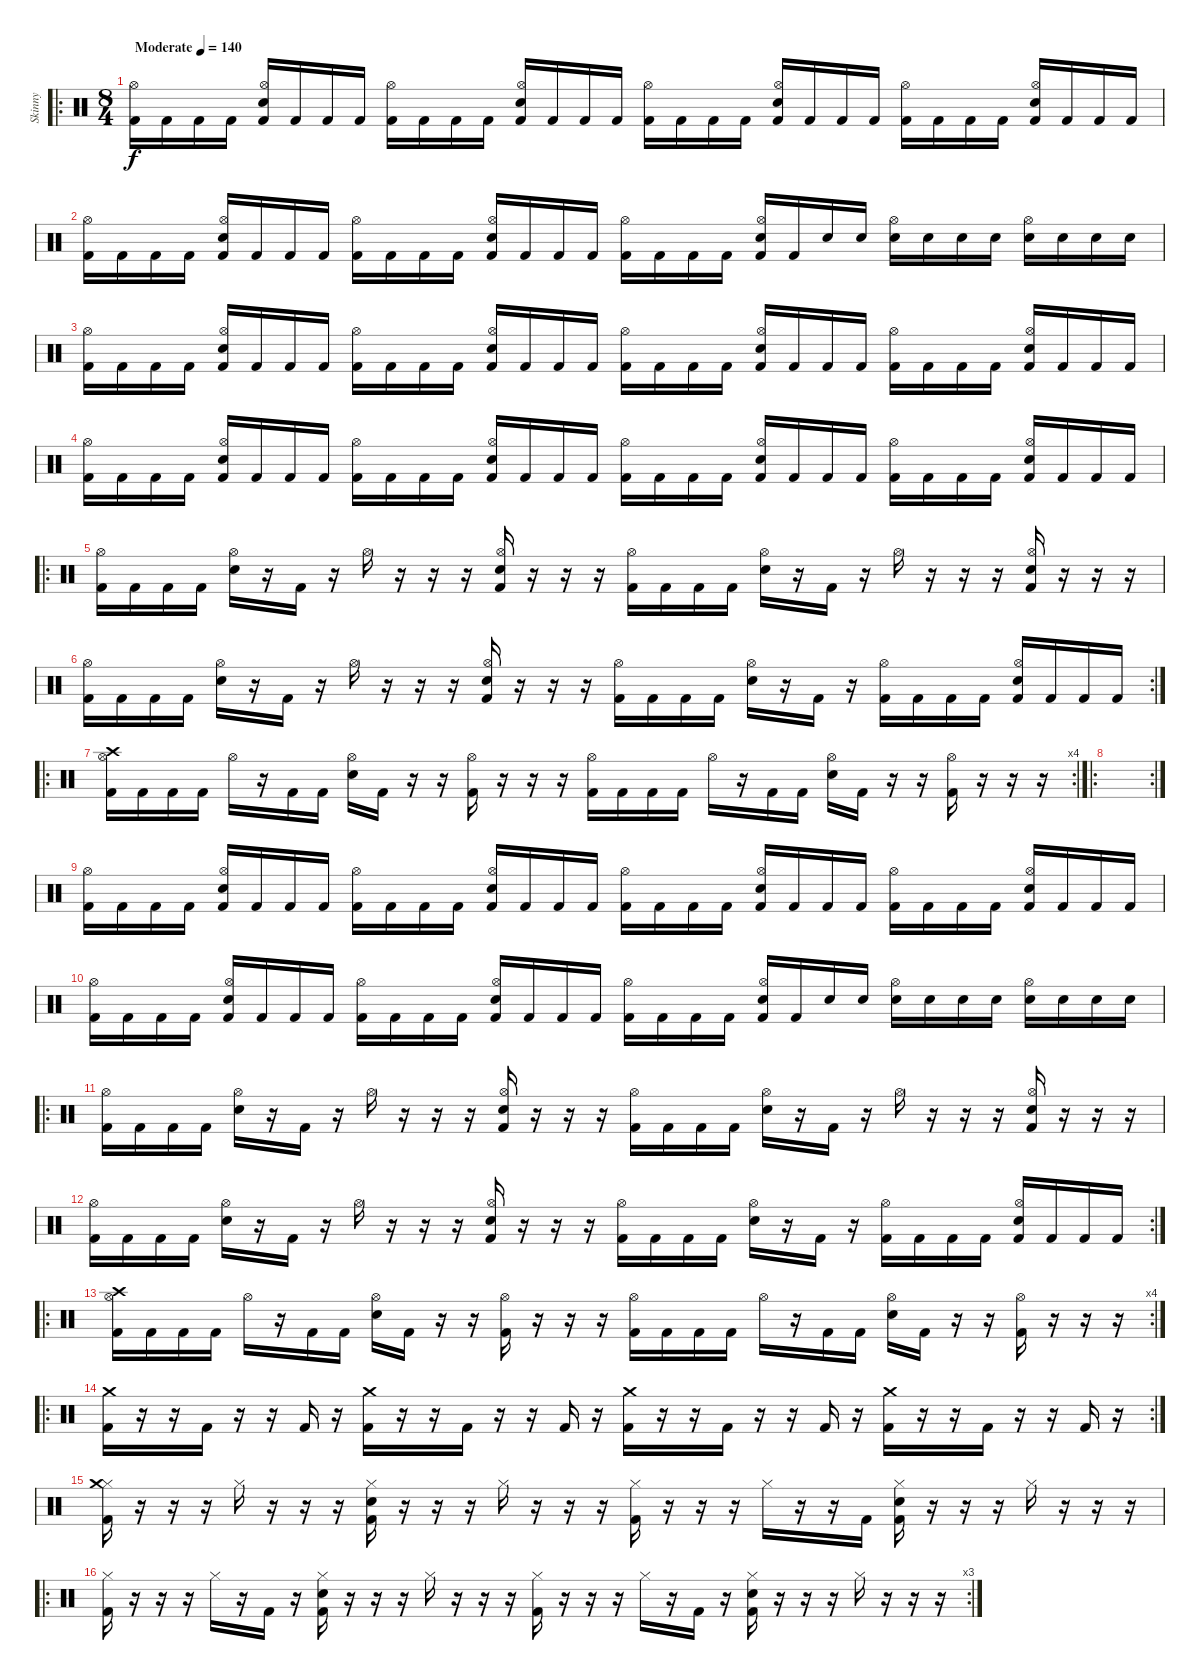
\track ("Skinny" "Skinny") {instrument percussion}
\staff {score}
\articulation defaults
\ro
\ts (8 4)
\tempo (140 "Moderate")
\clef neutral
\ks c
("Kick (hit) 2" "Hi-Hat (open)").16{dy f} "Kick (hit) 2".16 "Kick (hit) 2".16 "Kick (hit) 2".16 ("Kick (hit) 2" "Snare (hit) 2" "Hi-Hat (open)").16 "Kick (hit) 2".16 "Kick (hit) 2".16 "Kick (hit) 2".16 ("Kick (hit) 2" "Hi-Hat (open)").16 "Kick (hit) 2".16 "Kick (hit) 2".16 "Kick (hit) 2".16 ("Kick (hit) 2" "Snare (hit) 2" "Hi-Hat (open)").16 "Kick (hit) 2".16 "Kick (hit) 2".16 "Kick (hit) 2".16 ("Kick (hit) 2" "Hi-Hat (open)").16 "Kick (hit) 2".16 "Kick (hit) 2".16 "Kick (hit) 2".16 ("Kick (hit) 2" "Snare (hit) 2" "Hi-Hat (open)").16 "Kick (hit) 2".16 "Kick (hit) 2".16 "Kick (hit) 2".16 ("Kick (hit) 2" "Hi-Hat (open)").16 "Kick (hit) 2".16 "Kick (hit) 2".16 "Kick (hit) 2".16 ("Kick (hit) 2" "Snare (hit) 2" "Hi-Hat (open)").16 "Kick (hit) 2".16 "Kick (hit) 2".16 "Kick (hit) 2".16 |
("Kick (hit) 2" "Hi-Hat (open)").16 "Kick (hit) 2".16 "Kick (hit) 2".16 "Kick (hit) 2".16 ("Kick (hit) 2" "Snare (hit) 2" "Hi-Hat (open)").16 "Kick (hit) 2".16 "Kick (hit) 2".16 "Kick (hit) 2".16 ("Kick (hit) 2" "Hi-Hat (open)").16 "Kick (hit) 2".16 "Kick (hit) 2".16 "Kick (hit) 2".16 ("Kick (hit) 2" "Snare (hit) 2" "Hi-Hat (open)").16 "Kick (hit) 2".16 "Kick (hit) 2".16 "Kick (hit) 2".16 ("Kick (hit) 2" "Hi-Hat (open)").16 "Kick (hit) 2".16 "Kick (hit) 2".16 "Kick (hit) 2".16 ("Kick (hit) 2" "Snare (hit) 2" "Hi-Hat (open)").16 "Kick (hit) 2".16 "Snare (hit) 2".16 "Snare (hit) 2".16 ("Snare (hit) 2" "Hi-Hat (open)").16 "Snare (hit) 2".16 "Snare (hit) 2".16 "Snare (hit) 2".16 ("Snare (hit) 2" "Hi-Hat (open)").16 "Snare (hit) 2".16 "Snare (hit) 2".16 "Snare (hit) 2".16 |
("Kick (hit) 2" "Hi-Hat (open)").16 "Kick (hit) 2".16 "Kick (hit) 2".16 "Kick (hit) 2".16 ("Kick (hit) 2" "Snare (hit) 2" "Hi-Hat (open)").16 "Kick (hit) 2".16 "Kick (hit) 2".16 "Kick (hit) 2".16 ("Kick (hit) 2" "Hi-Hat (open)").16 "Kick (hit) 2".16 "Kick (hit) 2".16 "Kick (hit) 2".16 ("Kick (hit) 2" "Snare (hit) 2" "Hi-Hat (open)").16 "Kick (hit) 2".16 "Kick (hit) 2".16 "Kick (hit) 2".16 ("Kick (hit) 2" "Hi-Hat (open)").16 "Kick (hit) 2".16 "Kick (hit) 2".16 "Kick (hit) 2".16 ("Kick (hit) 2" "Snare (hit) 2" "Hi-Hat (open)").16 "Kick (hit) 2".16 "Kick (hit) 2".16 "Kick (hit) 2".16 ("Kick (hit) 2" "Hi-Hat (open)").16 "Kick (hit) 2".16 "Kick (hit) 2".16 "Kick (hit) 2".16 ("Kick (hit) 2" "Snare (hit) 2" "Hi-Hat (open)").16 "Kick (hit) 2".16 "Kick (hit) 2".16 "Kick (hit) 2".16 |
("Kick (hit) 2" "Hi-Hat (open)").16 "Kick (hit) 2".16 "Kick (hit) 2".16 "Kick (hit) 2".16 ("Kick (hit) 2" "Snare (hit) 2" "Hi-Hat (open)").16 "Kick (hit) 2".16 "Kick (hit) 2".16 "Kick (hit) 2".16 ("Kick (hit) 2" "Hi-Hat (open)").16 "Kick (hit) 2".16 "Kick (hit) 2".16 "Kick (hit) 2".16 ("Kick (hit) 2" "Snare (hit) 2" "Hi-Hat (open)").16 "Kick (hit) 2".16 "Kick (hit) 2".16 "Kick (hit) 2".16 ("Kick (hit) 2" "Hi-Hat (open)").16 "Kick (hit) 2".16 "Kick (hit) 2".16 "Kick (hit) 2".16 ("Kick (hit) 2" "Snare (hit) 2" "Hi-Hat (open)").16 "Kick (hit) 2".16 "Kick (hit) 2".16 "Kick (hit) 2".16 ("Kick (hit) 2" "Hi-Hat (open)").16 "Kick (hit) 2".16 "Kick (hit) 2".16 "Kick (hit) 2".16 ("Kick (hit) 2" "Snare (hit) 2" "Hi-Hat (open)").16 "Kick (hit) 2".16 "Kick (hit) 2".16 "Kick (hit) 2".16 |
\ro
("Kick (hit) 2" "Hi-Hat (open)").16 "Kick (hit) 2".16 "Kick (hit) 2".16 "Kick (hit) 2".16 ("Snare (hit) 2" "Hi-Hat (open)").16 r.16 "Kick (hit) 2".16 r.16 "Hi-Hat (open)".16 r.16 r.16 r.16 ("Kick (hit) 2" "Snare (hit) 2" "Hi-Hat (open)").16 r.16 r.16 r.16 ("Kick (hit) 2" "Hi-Hat (open)").16 "Kick (hit) 2".16 "Kick (hit) 2".16 "Kick (hit) 2".16 ("Snare (hit) 2" "Hi-Hat (open)").16 r.16 "Kick (hit) 2".16 r.16 "Hi-Hat (open)".16 r.16 r.16 r.16 ("Kick (hit) 2" "Snare (hit) 2" "Hi-Hat (open)").16 r.16 r.16 r.16 |
\rc 2
("Kick (hit) 2" "Hi-Hat (open)").16 "Kick (hit) 2".16 "Kick (hit) 2".16 "Kick (hit) 2".16 ("Snare (hit) 2" "Hi-Hat (open)").16 r.16 "Kick (hit) 2".16 r.16 "Hi-Hat (open)".16 r.16 r.16 r.16 ("Kick (hit) 2" "Snare (hit) 2" "Hi-Hat (open)").16 r.16 r.16 r.16 ("Kick (hit) 2" "Hi-Hat (open)").16 "Kick (hit) 2".16 "Kick (hit) 2".16 "Kick (hit) 2".16 ("Snare (hit) 2" "Hi-Hat (open)").16 r.16 "Kick (hit) 2".16 r.16 ("Kick (hit) 2" "Hi-Hat (open)").16 "Kick (hit) 2".16 "Kick (hit) 2".16 "Kick (hit) 2".16 ("Kick (hit) 2" "Snare (hit) 2" "Hi-Hat (open)").16 "Kick (hit) 2".16 "Kick (hit) 2".16 "Kick (hit) 2".16 |
\ro
\rc 4
("Kick (hit) 2" "Crash high (hit)" "Hi-Hat (open)").16 "Kick (hit) 2".16 "Kick (hit) 2".16 "Kick (hit) 2".16 "Hi-Hat (open)".16 r.16 "Kick (hit) 2".16 "Kick (hit) 2".16 ("Snare (hit) 2" "Hi-Hat (open)").16 "Kick (hit) 2".16 r.16 r.16 ("Kick (hit) 2" "Hi-Hat (open)").16 r.16 r.16 r.16 ("Kick (hit) 2" "Hi-Hat (open)").16 "Kick (hit) 2".16 "Kick (hit) 2".16 "Kick (hit) 2".16 "Hi-Hat (open)".16 r.16 "Kick (hit) 2".16 "Kick (hit) 2".16 ("Snare (hit) 2" "Hi-Hat (open)").16 "Kick (hit) 2".16 r.16 r.16 ("Kick (hit) 2" "Hi-Hat (open)").16 r.16 r.16 r.16 |
\ro
\rc 2
|
("Kick (hit) 2" "Hi-Hat (open)").16 "Kick (hit) 2".16 "Kick (hit) 2".16 "Kick (hit) 2".16 ("Kick (hit) 2" "Snare (hit) 2" "Hi-Hat (open)").16 "Kick (hit) 2".16 "Kick (hit) 2".16 "Kick (hit) 2".16 ("Kick (hit) 2" "Hi-Hat (open)").16 "Kick (hit) 2".16 "Kick (hit) 2".16 "Kick (hit) 2".16 ("Kick (hit) 2" "Snare (hit) 2" "Hi-Hat (open)").16 "Kick (hit) 2".16 "Kick (hit) 2".16 "Kick (hit) 2".16 ("Kick (hit) 2" "Hi-Hat (open)").16 "Kick (hit) 2".16 "Kick (hit) 2".16 "Kick (hit) 2".16 ("Kick (hit) 2" "Snare (hit) 2" "Hi-Hat (open)").16 "Kick (hit) 2".16 "Kick (hit) 2".16 "Kick (hit) 2".16 ("Kick (hit) 2" "Hi-Hat (open)").16 "Kick (hit) 2".16 "Kick (hit) 2".16 "Kick (hit) 2".16 ("Kick (hit) 2" "Snare (hit) 2" "Hi-Hat (open)").16 "Kick (hit) 2".16 "Kick (hit) 2".16 "Kick (hit) 2".16 |
("Kick (hit) 2" "Hi-Hat (open)").16 "Kick (hit) 2".16 "Kick (hit) 2".16 "Kick (hit) 2".16 ("Kick (hit) 2" "Snare (hit) 2" "Hi-Hat (open)").16 "Kick (hit) 2".16 "Kick (hit) 2".16 "Kick (hit) 2".16 ("Kick (hit) 2" "Hi-Hat (open)").16 "Kick (hit) 2".16 "Kick (hit) 2".16 "Kick (hit) 2".16 ("Kick (hit) 2" "Snare (hit) 2" "Hi-Hat (open)").16 "Kick (hit) 2".16 "Kick (hit) 2".16 "Kick (hit) 2".16 ("Kick (hit) 2" "Hi-Hat (open)").16 "Kick (hit) 2".16 "Kick (hit) 2".16 "Kick (hit) 2".16 ("Kick (hit) 2" "Snare (hit) 2" "Hi-Hat (open)").16 "Kick (hit) 2".16 "Snare (hit) 2".16 "Snare (hit) 2".16 ("Snare (hit) 2" "Hi-Hat (open)").16 "Snare (hit) 2".16 "Snare (hit) 2".16 "Snare (hit) 2".16 ("Snare (hit) 2" "Hi-Hat (open)").16 "Snare (hit) 2".16 "Snare (hit) 2".16 "Snare (hit) 2".16 |
\ro
("Kick (hit) 2" "Hi-Hat (open)").16 "Kick (hit) 2".16 "Kick (hit) 2".16 "Kick (hit) 2".16 ("Snare (hit) 2" "Hi-Hat (open)").16 r.16 "Kick (hit) 2".16 r.16 "Hi-Hat (open)".16 r.16 r.16 r.16 ("Kick (hit) 2" "Snare (hit) 2" "Hi-Hat (open)").16 r.16 r.16 r.16 ("Kick (hit) 2" "Hi-Hat (open)").16 "Kick (hit) 2".16 "Kick (hit) 2".16 "Kick (hit) 2".16 ("Snare (hit) 2" "Hi-Hat (open)").16 r.16 "Kick (hit) 2".16 r.16 "Hi-Hat (open)".16 r.16 r.16 r.16 ("Kick (hit) 2" "Snare (hit) 2" "Hi-Hat (open)").16 r.16 r.16 r.16 |
\rc 2
("Kick (hit) 2" "Hi-Hat (open)").16 "Kick (hit) 2".16 "Kick (hit) 2".16 "Kick (hit) 2".16 ("Snare (hit) 2" "Hi-Hat (open)").16 r.16 "Kick (hit) 2".16 r.16 "Hi-Hat (open)".16 r.16 r.16 r.16 ("Kick (hit) 2" "Snare (hit) 2" "Hi-Hat (open)").16 r.16 r.16 r.16 ("Kick (hit) 2" "Hi-Hat (open)").16 "Kick (hit) 2".16 "Kick (hit) 2".16 "Kick (hit) 2".16 ("Snare (hit) 2" "Hi-Hat (open)").16 r.16 "Kick (hit) 2".16 r.16 ("Kick (hit) 2" "Hi-Hat (open)").16 "Kick (hit) 2".16 "Kick (hit) 2".16 "Kick (hit) 2".16 ("Kick (hit) 2" "Snare (hit) 2" "Hi-Hat (open)").16 "Kick (hit) 2".16 "Kick (hit) 2".16 "Kick (hit) 2".16 |
\ro
\rc 4
("Kick (hit) 2" "Crash high (hit)" "Hi-Hat (open)").16 "Kick (hit) 2".16 "Kick (hit) 2".16 "Kick (hit) 2".16 "Hi-Hat (open)".16 r.16 "Kick (hit) 2".16 "Kick (hit) 2".16 ("Snare (hit) 2" "Hi-Hat (open)").16 "Kick (hit) 2".16 r.16 r.16 ("Kick (hit) 2" "Hi-Hat (open)").16 r.16 r.16 r.16 ("Kick (hit) 2" "Hi-Hat (open)").16 "Kick (hit) 2".16 "Kick (hit) 2".16 "Kick (hit) 2".16 "Hi-Hat (open)".16 r.16 "Kick (hit) 2".16 "Kick (hit) 2".16 ("Snare (hit) 2" "Hi-Hat (open)").16 "Kick (hit) 2".16 r.16 r.16 ("Kick (hit) 2" "Hi-Hat (open)").16 r.16 r.16 r.16 |
\ro
\rc 2
("Kick (hit) 2" "Crash medium (hit)").16 r.16 r.16 "Kick (hit) 2".16 r.16 r.16 "Kick (hit) 2".16 r.16 ("Kick (hit) 2" "Crash medium (hit)").16 r.16 r.16 "Kick (hit) 2".16 r.16 r.16 "Kick (hit) 2".16 r.16 ("Kick (hit) 2" "Crash medium (hit)").16 r.16 r.16 "Kick (hit) 2".16 r.16 r.16 "Kick (hit) 2".16 r.16 ("Kick (hit) 2" "Crash medium (hit)").16 r.16 r.16 "Kick (hit) 2".16 r.16 r.16 "Kick (hit) 2".16 r.16 |
("Hi-Hat (closed)" "Crash medium (hit)" "Kick (hit) 2").16 r.16 r.16 r.16 "Hi-Hat (closed)".16 r.16 r.16 r.16 ("Hi-Hat (closed)" "Snare (hit) 2" "Kick (hit) 2").16 r.16 r.16 r.16 "Hi-Hat (closed)".16 r.16 r.16 r.16 ("Hi-Hat (closed)" "Kick (hit) 2").16 r.16 r.16 r.16 "Hi-Hat (closed)".16 r.16 r.16 "Kick (hit) 2".16 ("Hi-Hat (closed)" "Snare (hit) 2" "Kick (hit) 2").16 r.16 r.16 r.16 "Hi-Hat (closed)".16 r.16 r.16 r.16 |
\ro
\rc 3
("Hi-Hat (closed)" "Kick (hit) 2").16 r.16 r.16 r.16 "Hi-Hat (closed)".16 r.16 "Kick (hit) 2".16 r.16 ("Hi-Hat (closed)" "Snare (hit) 2" "Kick (hit) 2").16 r.16 r.16 r.16 "Hi-Hat (closed)".16 r.16 r.16 r.16 ("Hi-Hat (closed)" "Kick (hit) 2").16 r.16 r.16 r.16 "Hi-Hat (closed)".16 r.16 "Kick (hit) 2".16 r.16 ("Hi-Hat (closed)" "Snare (hit) 2" "Kick (hit) 2").16 r.16 r.16 r.16 "Hi-Hat (closed)".16 r.16 r.16 r.16
